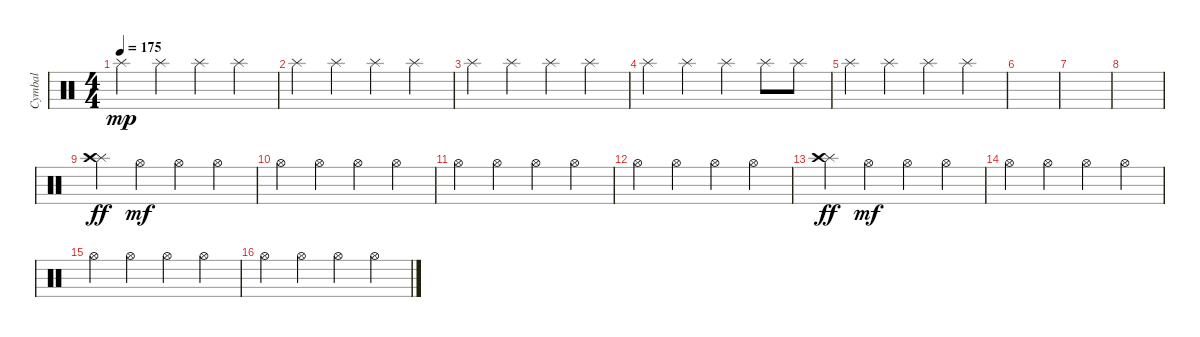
\track ("Cymbal" "Cymbal") {instrument percussion}
\staff {score}
\articulation defaults
\ts (4 4)
\tempo 175
\clef neutral
\ks c "Splash (hit)".4{dy mp} "Splash (hit)".4 "Splash (hit)".4 "Splash (hit)".4
|
"Splash (hit)".4 "Splash (hit)".4 "Splash (hit)".4 "Splash (hit)".4 |
"Splash (hit)".4 "Splash (hit)".4 "Splash (hit)".4 "Splash (hit)".4 |
"Splash (hit)".4 "Splash (hit)".4 "Splash (hit)".4 "Splash (hit)".8 "Splash (hit)".8 |
"Splash (hit)".4 "Splash (hit)".4 "Splash (hit)".4 "Splash (hit)".4 |
|
|
|
("Splash (hit)" "Crash high (hit)").4{dy ff} "Hi-Hat (open)".4{dy mf} "Hi-Hat (open)".4 "Hi-Hat (open)".4 |
"Hi-Hat (open)".4 "Hi-Hat (open)".4 "Hi-Hat (open)".4 "Hi-Hat (open)".4 |
"Hi-Hat (open)".4 "Hi-Hat (open)".4 "Hi-Hat (open)".4 "Hi-Hat (open)".4 |
"Hi-Hat (open)".4 "Hi-Hat (open)".4 "Hi-Hat (open)".4 "Hi-Hat (open)".4 |
("Splash (hit)" "Crash high (hit)").4{dy ff} "Hi-Hat (open)".4{dy mf} "Hi-Hat (open)".4 "Hi-Hat (open)".4 |
"Hi-Hat (open)".4 "Hi-Hat (open)".4 "Hi-Hat (open)".4 "Hi-Hat (open)".4 |
"Hi-Hat (open)".4 "Hi-Hat (open)".4 "Hi-Hat (open)".4 "Hi-Hat (open)".4 |
"Hi-Hat (open)".4 "Hi-Hat (open)".4 "Hi-Hat (open)".4 "Hi-Hat (open)".4
